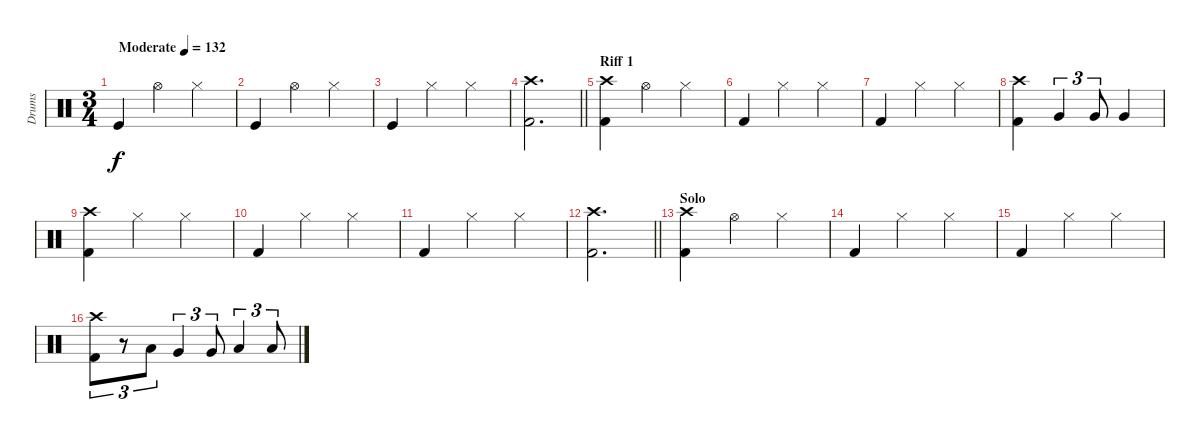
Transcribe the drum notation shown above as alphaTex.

\track ("Drums" "Drums") {instrument percussion}
\staff {score}
\articulation defaults
\ts (3 4)
\tempo (132 "Moderate")
\clef neutral
\ks c "Kick (hit)".4{dy f} "Hi-Hat (open)".4 "Hi-Hat (closed)".4
|
"Kick (hit)".4 "Hi-Hat (open)".4 "Hi-Hat (closed)".4 |
"Kick (hit)".4 "Hi-Hat (closed)".4 "Hi-Hat (closed)".4 |
\barLineRight lightlight
("Crash high (hit)" "Kick (hit) 2").2{d} |
\section ("" "Riff 1")
("Crash high (hit)" "Kick (hit) 2").4 "Hi-Hat (open)".4 "Hi-Hat (closed)".4 |
"Kick (hit) 2".4 "Hi-Hat (closed)".4 "Hi-Hat (closed)".4 |
"Kick (hit) 2".4 "Hi-Hat (closed)".4 "Hi-Hat (closed)".4 |
("Crash high (hit)" "Kick (hit) 2").4 "Very Low Tom (hit)".4{tu (3 2)} "Very Low Tom (hit)".8{tu (3 2)} "Very Low Tom (hit)".4 |
("Crash high (hit)" "Kick (hit) 2").4 "Hi-Hat (closed)".4 "Hi-Hat (closed)".4 |
"Kick (hit) 2".4 "Hi-Hat (closed)".4 "Hi-Hat (closed)".4 |
"Kick (hit) 2".4 "Hi-Hat (closed)".4 "Hi-Hat (closed)".4 |
\barLineRight lightlight
("Crash high (hit)" "Kick (hit) 2").2{d} |
\section ("" "Solo")
("Crash high (hit)" "Kick (hit) 2").4 "Hi-Hat (open)".4 "Hi-Hat (closed)".4 |
"Kick (hit) 2".4 "Hi-Hat (closed)".4 "Hi-Hat (closed)".4 |
"Kick (hit) 2".4 "Hi-Hat (closed)".4 "Hi-Hat (closed)".4 |
("Crash high (hit)" "Kick (hit) 2").8{tu (3 2)} r.8{tu (3 2)} "Low Tom (hit)".8{tu (3 2)} "Very Low Tom (hit)".4{tu (3 2)} "Very Low Tom (hit)".8{tu (3 2)} "Low Floor Tom (hit)".4{tu (3 2)} "Low Floor Tom (hit)".8{tu (3 2)}
